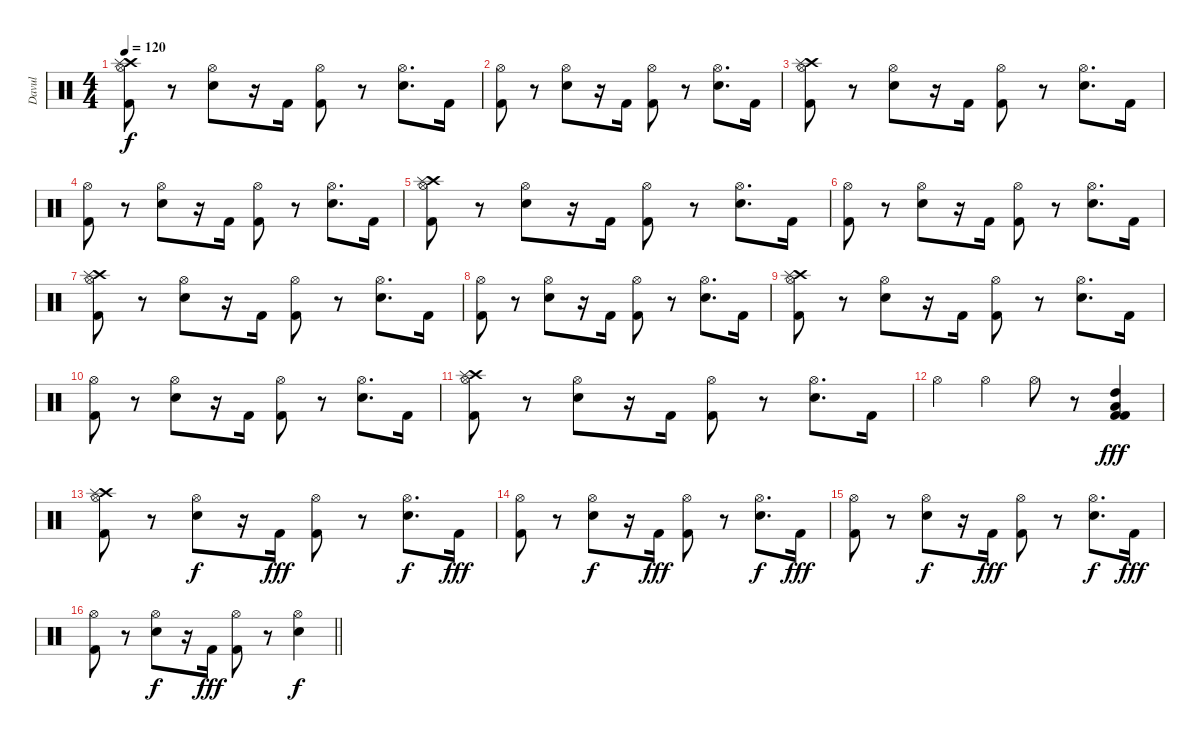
\track ("Davul" "Davul") {instrument percussion}
\staff {score}
\articulation defaults
\ts (4 4)
\tempo 120
\clef neutral
\ks c
("Hi-Hat (open)" "Kick (hit) 2" "Crash high (hit)" "Splash (hit)").8{dy f} r.8 ("Hi-Hat (open)" "Snare (hit) 2").8 r.16 "Kick (hit) 2".16 ("Hi-Hat (open)" "Kick (hit) 2").8 r.8 ("Hi-Hat (open)" "Snare (hit) 2").8{d} "Kick (hit) 2".16 |
("Hi-Hat (open)" "Kick (hit) 2").8 r.8 ("Hi-Hat (open)" "Snare (hit) 2").8 r.16 "Kick (hit) 2".16 ("Hi-Hat (open)" "Kick (hit) 2").8 r.8 ("Hi-Hat (open)" "Snare (hit) 2").8{d} "Kick (hit) 2".16 |
("Hi-Hat (open)" "Kick (hit) 2" "Crash high (hit)" "Splash (hit)").8 r.8 ("Hi-Hat (open)" "Snare (hit) 2").8 r.16 "Kick (hit) 2".16 ("Hi-Hat (open)" "Kick (hit) 2").8 r.8 ("Hi-Hat (open)" "Snare (hit) 2").8{d} "Kick (hit) 2".16 |
("Hi-Hat (open)" "Kick (hit) 2").8 r.8 ("Hi-Hat (open)" "Snare (hit) 2").8 r.16 "Kick (hit) 2".16 ("Hi-Hat (open)" "Kick (hit) 2").8 r.8 ("Hi-Hat (open)" "Snare (hit) 2").8{d} "Kick (hit) 2".16 |
("Hi-Hat (open)" "Kick (hit) 2" "Crash high (hit)" "Splash (hit)").8 r.8 ("Hi-Hat (open)" "Snare (hit) 2").8 r.16 "Kick (hit) 2".16 ("Hi-Hat (open)" "Kick (hit) 2").8 r.8 ("Hi-Hat (open)" "Snare (hit) 2").8{d} "Kick (hit) 2".16 |
("Hi-Hat (open)" "Kick (hit) 2").8 r.8 ("Hi-Hat (open)" "Snare (hit) 2").8 r.16 "Kick (hit) 2".16 ("Hi-Hat (open)" "Kick (hit) 2").8 r.8 ("Hi-Hat (open)" "Snare (hit) 2").8{d} "Kick (hit) 2".16 |
("Hi-Hat (open)" "Kick (hit) 2" "Crash high (hit)" "Splash (hit)").8 r.8 ("Hi-Hat (open)" "Snare (hit) 2").8 r.16 "Kick (hit) 2".16 ("Hi-Hat (open)" "Kick (hit) 2").8 r.8 ("Hi-Hat (open)" "Snare (hit) 2").8{d} "Kick (hit) 2".16 |
("Hi-Hat (open)" "Kick (hit) 2").8 r.8 ("Hi-Hat (open)" "Snare (hit) 2").8 r.16 "Kick (hit) 2".16 ("Hi-Hat (open)" "Kick (hit) 2").8 r.8 ("Hi-Hat (open)" "Snare (hit) 2").8{d} "Kick (hit) 2".16 |
("Hi-Hat (open)" "Kick (hit) 2" "Crash high (hit)" "Splash (hit)").8 r.8 ("Hi-Hat (open)" "Snare (hit) 2").8 r.16 "Kick (hit) 2".16 ("Hi-Hat (open)" "Kick (hit) 2").8 r.8 ("Hi-Hat (open)" "Snare (hit) 2").8{d} "Kick (hit) 2".16 |
("Hi-Hat (open)" "Kick (hit) 2").8 r.8 ("Hi-Hat (open)" "Snare (hit) 2").8 r.16 "Kick (hit) 2".16 ("Hi-Hat (open)" "Kick (hit) 2").8 r.8 ("Hi-Hat (open)" "Snare (hit) 2").8{d} "Kick (hit) 2".16 |
("Hi-Hat (open)" "Kick (hit) 2" "Crash high (hit)" "Splash (hit)").8 r.8 ("Hi-Hat (open)" "Snare (hit) 2").8 r.16 "Kick (hit) 2".16 ("Hi-Hat (open)" "Kick (hit) 2").8 r.8 ("Hi-Hat (open)" "Snare (hit) 2").8{d} "Kick (hit) 2".16 |
"Hi-Hat (open)".4 "Hi-Hat (open)".4 "Hi-Hat (open)".8 r.8 ("Kick (hit) 2" "Kick (hit) 2" "Low Tom (hit)" "High Tom (hit)").4{dy fff} |
("Hi-Hat (open)" "Kick (hit) 2" "Crash high (hit)" "Splash (hit)").8 r.8 ("Hi-Hat (open)" "Snare (hit) 2").8{dy f} r.16 "Kick (hit) 2".16{dy fff} ("Hi-Hat (open)" "Kick (hit) 2").8 r.8 ("Hi-Hat (open)" "Snare (hit) 2").8{d dy f} "Kick (hit) 2".16{dy fff} |
("Hi-Hat (open)" "Kick (hit) 2").8 r.8 ("Hi-Hat (open)" "Snare (hit) 2").8{dy f} r.16 "Kick (hit) 2".16{dy fff} ("Hi-Hat (open)" "Kick (hit) 2").8 r.8 ("Hi-Hat (open)" "Snare (hit) 2").8{d dy f} "Kick (hit) 2".16{dy fff} |
("Hi-Hat (open)" "Kick (hit) 2").8 r.8 ("Hi-Hat (open)" "Snare (hit) 2").8{dy f} r.16 "Kick (hit) 2".16{dy fff} ("Hi-Hat (open)" "Kick (hit) 2").8 r.8 ("Hi-Hat (open)" "Snare (hit) 2").8{d dy f} "Kick (hit) 2".16{dy fff} |
\barLineRight lightlight
("Hi-Hat (open)" "Kick (hit) 2").8 r.8 ("Hi-Hat (open)" "Snare (hit) 2").8{dy f} r.16 "Kick (hit) 2".16{dy fff} ("Hi-Hat (open)" "Kick (hit) 2").8 r.8 ("Hi-Hat (open)" "Snare (hit) 2").4{dy f}
